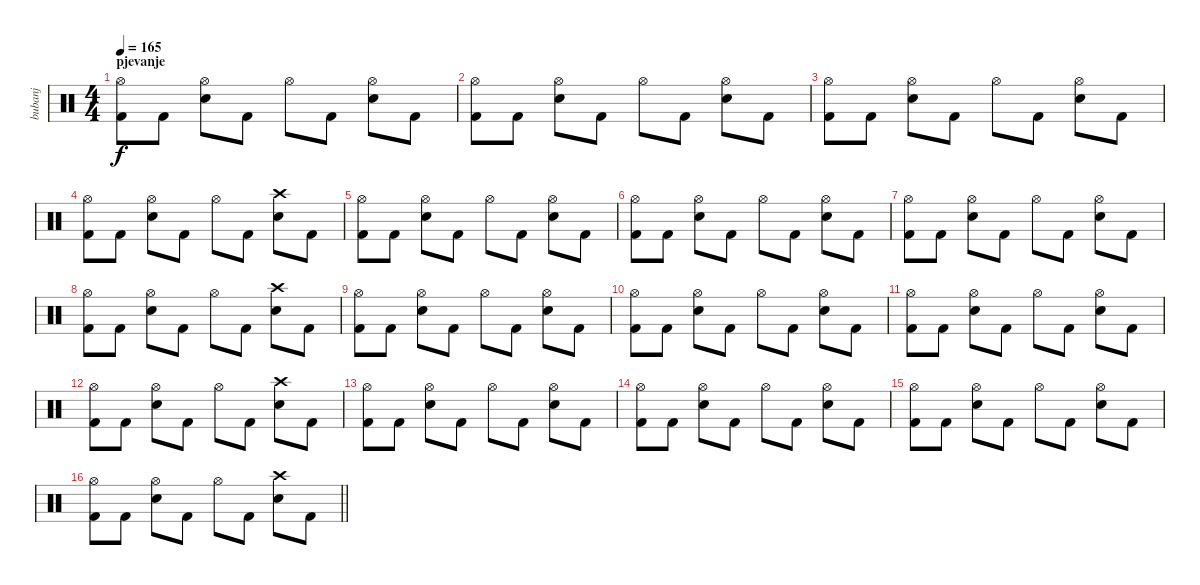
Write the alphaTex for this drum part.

\track ("bubanj" "bubanj") {instrument percussion}
\staff {score}
\articulation defaults
\ts (4 4)
\section ("" "pjevanje")
\tempo 165
\clef neutral
\ks c
("Hi-Hat (open)" "Kick (hit) 2").8{dy f} "Kick (hit) 2".8 ("Hi-Hat (open)" "Electric Snare (hit)").8 "Kick (hit) 2".8 "Hi-Hat (open)".8 "Kick (hit) 2".8 ("Hi-Hat (open)" "Electric Snare (hit)").8 "Kick (hit) 2".8 |
("Hi-Hat (open)" "Kick (hit) 2").8 "Kick (hit) 2".8 ("Hi-Hat (open)" "Electric Snare (hit)").8 "Kick (hit) 2".8 "Hi-Hat (open)".8 "Kick (hit) 2".8 ("Hi-Hat (open)" "Electric Snare (hit)").8 "Kick (hit) 2".8 |
("Hi-Hat (open)" "Kick (hit) 2").8 "Kick (hit) 2".8 ("Hi-Hat (open)" "Electric Snare (hit)").8 "Kick (hit) 2".8 "Hi-Hat (open)".8 "Kick (hit) 2".8 ("Hi-Hat (open)" "Electric Snare (hit)").8 "Kick (hit) 2".8 |
("Hi-Hat (open)" "Kick (hit) 2").8 "Kick (hit) 2".8 ("Hi-Hat (open)" "Electric Snare (hit)").8 "Kick (hit) 2".8 "Hi-Hat (open)".8 "Kick (hit) 2".8 ("Crash high (hit)" "Electric Snare (hit)").8 "Kick (hit) 2".8 |
("Hi-Hat (open)" "Kick (hit) 2").8 "Kick (hit) 2".8 ("Hi-Hat (open)" "Electric Snare (hit)").8 "Kick (hit) 2".8 "Hi-Hat (open)".8 "Kick (hit) 2".8 ("Hi-Hat (open)" "Electric Snare (hit)").8 "Kick (hit) 2".8 |
("Hi-Hat (open)" "Kick (hit) 2").8 "Kick (hit) 2".8 ("Hi-Hat (open)" "Electric Snare (hit)").8 "Kick (hit) 2".8 "Hi-Hat (open)".8 "Kick (hit) 2".8 ("Hi-Hat (open)" "Electric Snare (hit)").8 "Kick (hit) 2".8 |
("Hi-Hat (open)" "Kick (hit) 2").8 "Kick (hit) 2".8 ("Hi-Hat (open)" "Electric Snare (hit)").8 "Kick (hit) 2".8 "Hi-Hat (open)".8 "Kick (hit) 2".8 ("Hi-Hat (open)" "Electric Snare (hit)").8 "Kick (hit) 2".8 |
("Hi-Hat (open)" "Kick (hit) 2").8 "Kick (hit) 2".8 ("Hi-Hat (open)" "Electric Snare (hit)").8 "Kick (hit) 2".8 "Hi-Hat (open)".8 "Kick (hit) 2".8 ("Crash high (hit)" "Electric Snare (hit)").8 "Kick (hit) 2".8 |
("Hi-Hat (open)" "Kick (hit) 2").8 "Kick (hit) 2".8 ("Hi-Hat (open)" "Electric Snare (hit)").8 "Kick (hit) 2".8 "Hi-Hat (open)".8 "Kick (hit) 2".8 ("Hi-Hat (open)" "Electric Snare (hit)").8 "Kick (hit) 2".8 |
("Hi-Hat (open)" "Kick (hit) 2").8 "Kick (hit) 2".8 ("Hi-Hat (open)" "Electric Snare (hit)").8 "Kick (hit) 2".8 "Hi-Hat (open)".8 "Kick (hit) 2".8 ("Hi-Hat (open)" "Electric Snare (hit)").8 "Kick (hit) 2".8 |
("Hi-Hat (open)" "Kick (hit) 2").8 "Kick (hit) 2".8 ("Hi-Hat (open)" "Electric Snare (hit)").8 "Kick (hit) 2".8 "Hi-Hat (open)".8 "Kick (hit) 2".8 ("Hi-Hat (open)" "Electric Snare (hit)").8 "Kick (hit) 2".8 |
("Hi-Hat (open)" "Kick (hit) 2").8 "Kick (hit) 2".8 ("Hi-Hat (open)" "Electric Snare (hit)").8 "Kick (hit) 2".8 "Hi-Hat (open)".8 "Kick (hit) 2".8 ("Crash high (hit)" "Electric Snare (hit)").8 "Kick (hit) 2".8 |
("Hi-Hat (open)" "Kick (hit) 2").8 "Kick (hit) 2".8 ("Hi-Hat (open)" "Electric Snare (hit)").8 "Kick (hit) 2".8 "Hi-Hat (open)".8 "Kick (hit) 2".8 ("Hi-Hat (open)" "Electric Snare (hit)").8 "Kick (hit) 2".8 |
("Hi-Hat (open)" "Kick (hit) 2").8 "Kick (hit) 2".8 ("Hi-Hat (open)" "Electric Snare (hit)").8 "Kick (hit) 2".8 "Hi-Hat (open)".8 "Kick (hit) 2".8 ("Hi-Hat (open)" "Electric Snare (hit)").8 "Kick (hit) 2".8 |
("Hi-Hat (open)" "Kick (hit) 2").8 "Kick (hit) 2".8 ("Hi-Hat (open)" "Electric Snare (hit)").8 "Kick (hit) 2".8 "Hi-Hat (open)".8 "Kick (hit) 2".8 ("Hi-Hat (open)" "Electric Snare (hit)").8 "Kick (hit) 2".8 |
\barLineRight lightlight
("Hi-Hat (open)" "Kick (hit) 2").8 "Kick (hit) 2".8 ("Hi-Hat (open)" "Electric Snare (hit)").8 "Kick (hit) 2".8 "Hi-Hat (open)".8 "Kick (hit) 2".8 ("Crash high (hit)" "Electric Snare (hit)").8 "Kick (hit) 2".8
